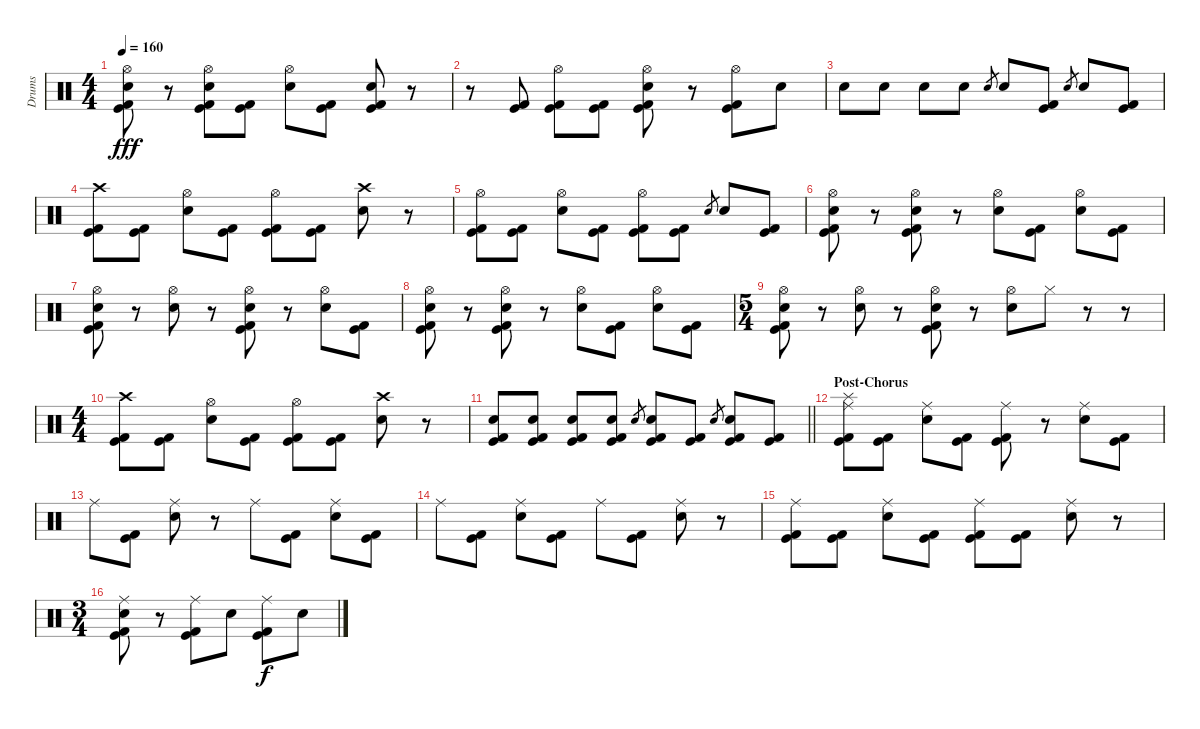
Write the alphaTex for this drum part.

\track ("Drums" "Drums") {instrument percussion}
\staff {score}
\articulation defaults
\ts (4 4)
\tempo 160
\clef neutral
\ks c
("Hi-Hat (open)" "Electric Snare (hit)" "Kick (hit)" "Kick (hit) 2").8{dy fff} r.8 ("Hi-Hat (open)" "Electric Snare (hit)" "Kick (hit)" "Kick (hit) 2").8 ("Kick (hit)" "Kick (hit) 2").8 ("Hi-Hat (open)" "Electric Snare (hit)").8 ("Kick (hit)" "Kick (hit) 2").8 ("Electric Snare (hit)" "Kick (hit)" "Kick (hit) 2").8 r.8 |
r.8 ("Kick (hit)" "Kick (hit) 2").8 ("Hi-Hat (open)" "Kick (hit)" "Kick (hit) 2").8 ("Kick (hit)" "Kick (hit) 2").8 ("Hi-Hat (open)" "Electric Snare (hit)" "Kick (hit)" "Kick (hit) 2").8 r.8 ("Hi-Hat (open)" "Kick (hit)" "Kick (hit) 2").8 "Electric Snare (hit)".8 |
"Electric Snare (hit)".8 "Electric Snare (hit)".8 "Electric Snare (hit)".8 "Electric Snare (hit)".8 "Electric Snare (hit)".8{gr} "Electric Snare (hit)".8 ("Kick (hit)" "Kick (hit) 2").8 "Electric Snare (hit)".8{gr} "Electric Snare (hit)".8 ("Kick (hit)" "Kick (hit) 2").8 |
("Crash high (hit)" "Kick (hit)" "Kick (hit) 2").8 ("Kick (hit)" "Kick (hit) 2").8 ("Hi-Hat (open)" "Electric Snare (hit)").8 ("Kick (hit)" "Kick (hit) 2").8 ("Hi-Hat (open)" "Kick (hit)" "Kick (hit) 2").8 ("Kick (hit)" "Kick (hit) 2").8 ("Crash high (hit)" "Electric Snare (hit)").8 r.8 |
("Hi-Hat (open)" "Kick (hit)" "Kick (hit) 2").8 ("Kick (hit)" "Kick (hit) 2").8 ("Hi-Hat (open)" "Electric Snare (hit)").8 ("Kick (hit)" "Kick (hit) 2").8 ("Hi-Hat (open)" "Kick (hit)" "Kick (hit) 2").8 ("Kick (hit)" "Kick (hit) 2").8 "Electric Snare (hit)".8{gr} "Electric Snare (hit)".8 ("Kick (hit)" "Kick (hit) 2").8 |
("Hi-Hat (open)" "Electric Snare (hit)" "Kick (hit)" "Kick (hit) 2").8 r.8 ("Hi-Hat (open)" "Electric Snare (hit)" "Kick (hit)" "Kick (hit) 2").8 r.8 ("Hi-Hat (open)" "Electric Snare (hit)").8 ("Kick (hit)" "Kick (hit) 2").8 ("Hi-Hat (open)" "Electric Snare (hit)").8 ("Kick (hit)" "Kick (hit) 2").8 |
("Hi-Hat (open)" "Electric Snare (hit)" "Kick (hit)" "Kick (hit) 2").8 r.8 ("Hi-Hat (open)" "Electric Snare (hit)").8 r.8 ("Hi-Hat (open)" "Electric Snare (hit)" "Kick (hit)" "Kick (hit) 2").8 r.8 ("Hi-Hat (open)" "Electric Snare (hit)").8 ("Kick (hit)" "Kick (hit) 2").8 |
("Hi-Hat (open)" "Electric Snare (hit)" "Kick (hit)" "Kick (hit) 2").8 r.8 ("Hi-Hat (open)" "Electric Snare (hit)" "Kick (hit)" "Kick (hit) 2").8 r.8 ("Hi-Hat (open)" "Electric Snare (hit)").8 ("Kick (hit)" "Kick (hit) 2").8 ("Hi-Hat (open)" "Electric Snare (hit)").8 ("Kick (hit)" "Kick (hit) 2").8 |
\ts (5 4)
("Hi-Hat (open)" "Electric Snare (hit)" "Kick (hit)" "Kick (hit) 2").8 r.8 ("Hi-Hat (open)" "Electric Snare (hit)").8 r.8 ("Hi-Hat (open)" "Electric Snare (hit)" "Kick (hit)" "Kick (hit) 2").8 r.8 ("Hi-Hat (open)" "Electric Snare (hit)").8 "Hi-Hat (closed)".8 r.8 r.8 |
\ts (4 4)
("Crash high (hit)" "Kick (hit)" "Kick (hit) 2").8 ("Kick (hit)" "Kick (hit) 2").8 ("Hi-Hat (open)" "Electric Snare (hit)").8 ("Kick (hit)" "Kick (hit) 2").8 ("Hi-Hat (open)" "Kick (hit)" "Kick (hit) 2").8 ("Kick (hit)" "Kick (hit) 2").8 ("Crash high (hit)" "Electric Snare (hit)").8 r.8 |
\barLineRight lightlight
("Electric Snare (hit)" "Kick (hit)" "Kick (hit) 2").8 ("Electric Snare (hit)" "Kick (hit)" "Kick (hit) 2").8 ("Electric Snare (hit)" "Kick (hit)" "Kick (hit) 2").8 ("Electric Snare (hit)" "Kick (hit)" "Kick (hit) 2").8 "Electric Snare (hit)".8{gr} ("Electric Snare (hit)" "Kick (hit)" "Kick (hit) 2").8 ("Kick (hit)" "Kick (hit) 2").8 "Electric Snare (hit)".8{gr} ("Electric Snare (hit)" "Kick (hit)" "Kick (hit) 2").8 ("Kick (hit)" "Kick (hit) 2").8 |
\section ("" "Post-Chorus")
("Splash (hit)" "Ride (middle)" "Kick (hit)" "Kick (hit) 2").8 ("Kick (hit)" "Kick (hit) 2").8 ("Ride (middle)" "Electric Snare (hit)").8 ("Kick (hit)" "Kick (hit) 2").8 ("Ride (middle)" "Kick (hit)" "Kick (hit) 2").8 r.8 ("Ride (middle)" "Electric Snare (hit)").8 ("Kick (hit)" "Kick (hit) 2").8 |
"Ride (middle)".8 ("Kick (hit)" "Kick (hit) 2").8 ("Ride (middle)" "Electric Snare (hit)").8 r.8 "Ride (middle)".8 ("Kick (hit)" "Kick (hit) 2").8 ("Ride (middle)" "Electric Snare (hit)").8 ("Kick (hit)" "Kick (hit) 2").8 |
"Ride (middle)".8 ("Kick (hit)" "Kick (hit) 2").8 ("Ride (middle)" "Electric Snare (hit)").8 ("Kick (hit)" "Kick (hit) 2").8 "Ride (middle)".8 ("Kick (hit)" "Kick (hit) 2").8 ("Ride (middle)" "Electric Snare (hit)").8 r.8 |
("Ride (middle)" "Kick (hit)" "Kick (hit) 2").8 ("Kick (hit)" "Kick (hit) 2").8 ("Ride (middle)" "Electric Snare (hit)").8 ("Kick (hit)" "Kick (hit) 2").8 ("Ride (middle)" "Kick (hit)" "Kick (hit) 2").8 ("Kick (hit)" "Kick (hit) 2").8 ("Ride (middle)" "Electric Snare (hit)").8 r.8 |
\ts (3 4)
("Ride (middle)" "Electric Snare (hit)" "Kick (hit)" "Kick (hit) 2").8 r.8 ("Ride (middle)" "Kick (hit)" "Kick (hit) 2").8 "Electric Snare (hit)".8 ("Ride (middle)" "Kick (hit)" "Kick (hit) 2").8{dy f} "Electric Snare (hit)".8
